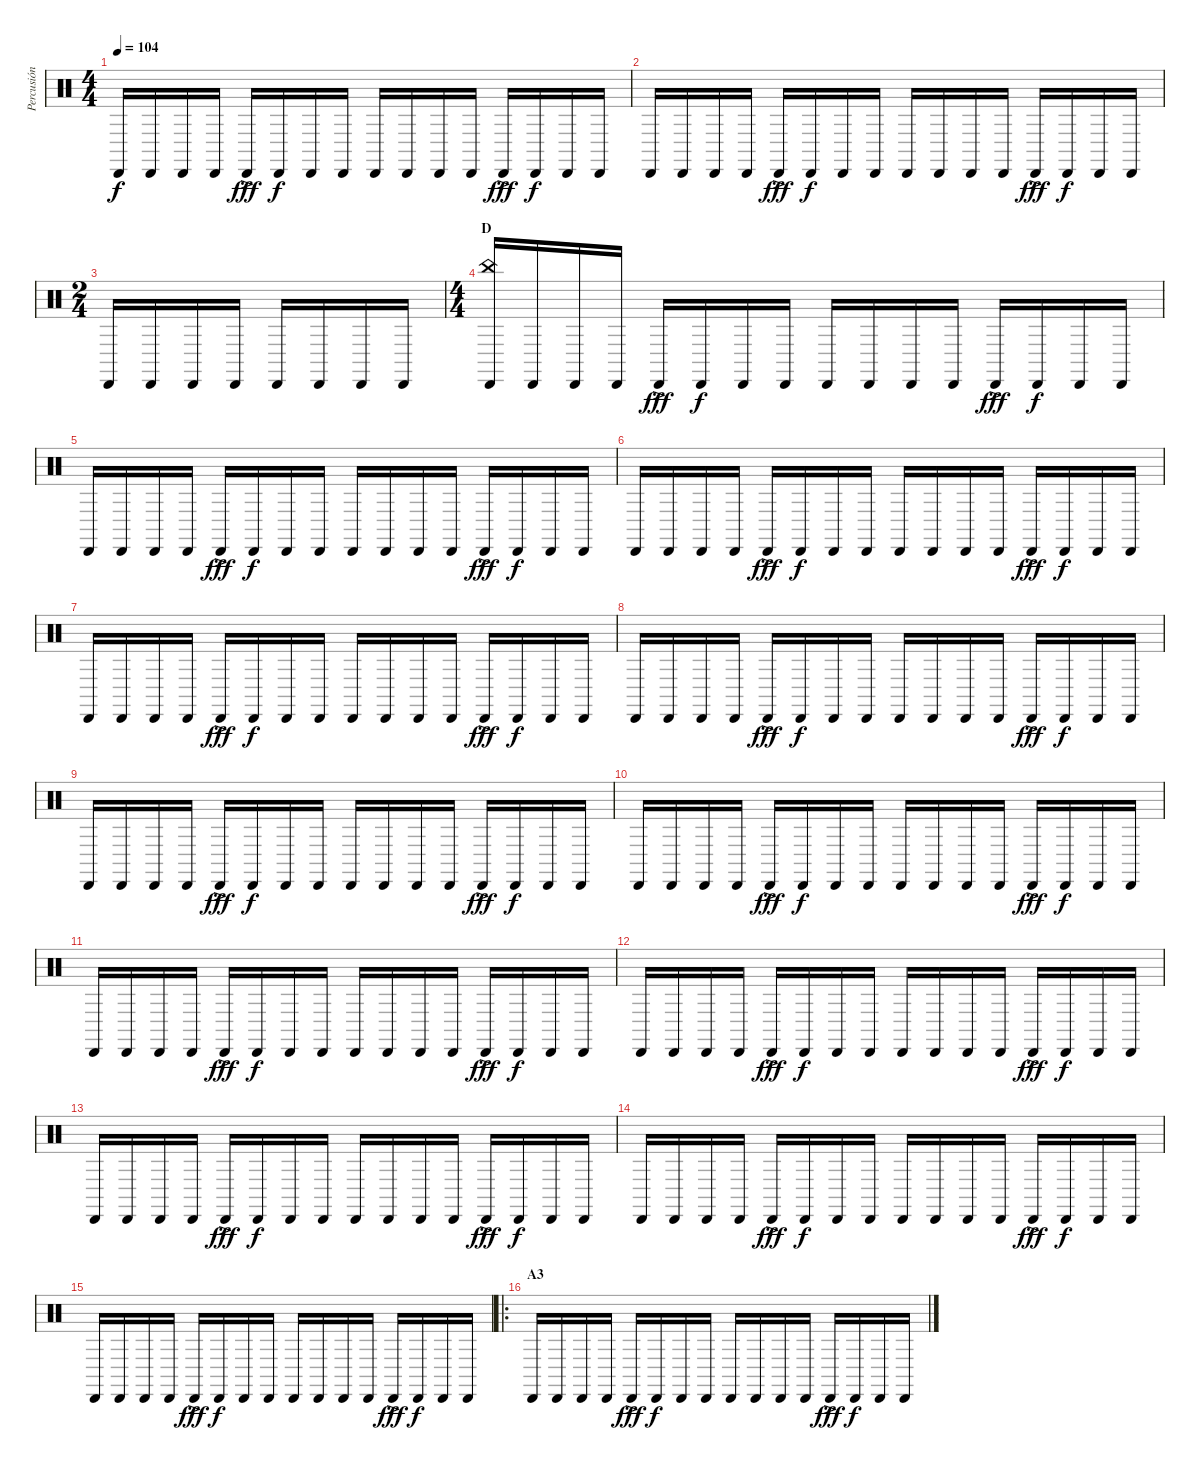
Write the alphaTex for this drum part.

\track ("Percusión" "Percusión") {instrument percussion}
\staff {score}
\articulation defaults
\ts (4 4)
\tempo 104
\clef neutral
\ks c "Cabasa (hit)".16{dy f} "Cabasa (hit)".16 "Cabasa (hit)".16 "Cabasa (hit)".16 "Cabasa (hit)"{ac}.16{dy fff} "Cabasa (hit)".16{dy f} "Cabasa (hit)".16 "Cabasa (hit)".16 "Cabasa (hit)".16 "Cabasa (hit)".16 "Cabasa (hit)".16 "Cabasa (hit)".16 "Cabasa (hit)"{ac}.16{dy fff} "Cabasa (hit)".16{dy f} "Cabasa (hit)".16 "Cabasa (hit)".16
|
"Cabasa (hit)".16 "Cabasa (hit)".16 "Cabasa (hit)".16 "Cabasa (hit)".16 "Cabasa (hit)"{ac}.16{dy fff} "Cabasa (hit)".16{dy f} "Cabasa (hit)".16 "Cabasa (hit)".16 "Cabasa (hit)".16 "Cabasa (hit)".16 "Cabasa (hit)".16 "Cabasa (hit)".16 "Cabasa (hit)"{ac}.16{dy fff} "Cabasa (hit)".16{dy f} "Cabasa (hit)".16 "Cabasa (hit)".16 |
\ts (2 4)
"Cabasa (hit)".16 "Cabasa (hit)".16 "Cabasa (hit)".16 "Cabasa (hit)".16 "Cabasa (hit)".16 "Cabasa (hit)".16 "Cabasa (hit)".16 "Cabasa (hit)".16 |
\ts (4 4)
\section ("" "D")
("Cabasa (hit)" "China (hit)").16 "Cabasa (hit)".16 "Cabasa (hit)".16 "Cabasa (hit)".16 "Cabasa (hit)"{ac}.16{dy fff} "Cabasa (hit)".16{dy f} "Cabasa (hit)".16 "Cabasa (hit)".16 "Cabasa (hit)".16 "Cabasa (hit)".16 "Cabasa (hit)".16 "Cabasa (hit)".16 "Cabasa (hit)"{ac}.16{dy fff} "Cabasa (hit)".16{dy f} "Cabasa (hit)".16 "Cabasa (hit)".16 |
"Cabasa (hit)".16 "Cabasa (hit)".16 "Cabasa (hit)".16 "Cabasa (hit)".16 "Cabasa (hit)"{ac}.16{dy fff} "Cabasa (hit)".16{dy f} "Cabasa (hit)".16 "Cabasa (hit)".16 "Cabasa (hit)".16 "Cabasa (hit)".16 "Cabasa (hit)".16 "Cabasa (hit)".16 "Cabasa (hit)"{ac}.16{dy fff} "Cabasa (hit)".16{dy f} "Cabasa (hit)".16 "Cabasa (hit)".16 |
"Cabasa (hit)".16 "Cabasa (hit)".16 "Cabasa (hit)".16 "Cabasa (hit)".16 "Cabasa (hit)"{ac}.16{dy fff} "Cabasa (hit)".16{dy f} "Cabasa (hit)".16 "Cabasa (hit)".16 "Cabasa (hit)".16 "Cabasa (hit)".16 "Cabasa (hit)".16 "Cabasa (hit)".16 "Cabasa (hit)"{ac}.16{dy fff} "Cabasa (hit)".16{dy f} "Cabasa (hit)".16 "Cabasa (hit)".16 |
"Cabasa (hit)".16 "Cabasa (hit)".16 "Cabasa (hit)".16 "Cabasa (hit)".16 "Cabasa (hit)"{ac}.16{dy fff} "Cabasa (hit)".16{dy f} "Cabasa (hit)".16 "Cabasa (hit)".16 "Cabasa (hit)".16 "Cabasa (hit)".16 "Cabasa (hit)".16 "Cabasa (hit)".16 "Cabasa (hit)"{ac}.16{dy fff} "Cabasa (hit)".16{dy f} "Cabasa (hit)".16 "Cabasa (hit)".16 |
"Cabasa (hit)".16 "Cabasa (hit)".16 "Cabasa (hit)".16 "Cabasa (hit)".16 "Cabasa (hit)"{ac}.16{dy fff} "Cabasa (hit)".16{dy f} "Cabasa (hit)".16 "Cabasa (hit)".16 "Cabasa (hit)".16 "Cabasa (hit)".16 "Cabasa (hit)".16 "Cabasa (hit)".16 "Cabasa (hit)"{ac}.16{dy fff} "Cabasa (hit)".16{dy f} "Cabasa (hit)".16 "Cabasa (hit)".16 |
"Cabasa (hit)".16 "Cabasa (hit)".16 "Cabasa (hit)".16 "Cabasa (hit)".16 "Cabasa (hit)"{ac}.16{dy fff} "Cabasa (hit)".16{dy f} "Cabasa (hit)".16 "Cabasa (hit)".16 "Cabasa (hit)".16 "Cabasa (hit)".16 "Cabasa (hit)".16 "Cabasa (hit)".16 "Cabasa (hit)"{ac}.16{dy fff} "Cabasa (hit)".16{dy f} "Cabasa (hit)".16 "Cabasa (hit)".16 |
"Cabasa (hit)".16 "Cabasa (hit)".16 "Cabasa (hit)".16 "Cabasa (hit)".16 "Cabasa (hit)"{ac}.16{dy fff} "Cabasa (hit)".16{dy f} "Cabasa (hit)".16 "Cabasa (hit)".16 "Cabasa (hit)".16 "Cabasa (hit)".16 "Cabasa (hit)".16 "Cabasa (hit)".16 "Cabasa (hit)"{ac}.16{dy fff} "Cabasa (hit)".16{dy f} "Cabasa (hit)".16 "Cabasa (hit)".16 |
"Cabasa (hit)".16 "Cabasa (hit)".16 "Cabasa (hit)".16 "Cabasa (hit)".16 "Cabasa (hit)"{ac}.16{dy fff} "Cabasa (hit)".16{dy f} "Cabasa (hit)".16 "Cabasa (hit)".16 "Cabasa (hit)".16 "Cabasa (hit)".16 "Cabasa (hit)".16 "Cabasa (hit)".16 "Cabasa (hit)"{ac}.16{dy fff} "Cabasa (hit)".16{dy f} "Cabasa (hit)".16 "Cabasa (hit)".16 |
"Cabasa (hit)".16 "Cabasa (hit)".16 "Cabasa (hit)".16 "Cabasa (hit)".16 "Cabasa (hit)"{ac}.16{dy fff} "Cabasa (hit)".16{dy f} "Cabasa (hit)".16 "Cabasa (hit)".16 "Cabasa (hit)".16 "Cabasa (hit)".16 "Cabasa (hit)".16 "Cabasa (hit)".16 "Cabasa (hit)"{ac}.16{dy fff} "Cabasa (hit)".16{dy f} "Cabasa (hit)".16 "Cabasa (hit)".16 |
"Cabasa (hit)".16 "Cabasa (hit)".16 "Cabasa (hit)".16 "Cabasa (hit)".16 "Cabasa (hit)"{ac}.16{dy fff} "Cabasa (hit)".16{dy f} "Cabasa (hit)".16 "Cabasa (hit)".16 "Cabasa (hit)".16 "Cabasa (hit)".16 "Cabasa (hit)".16 "Cabasa (hit)".16 "Cabasa (hit)"{ac}.16{dy fff} "Cabasa (hit)".16{dy f} "Cabasa (hit)".16 "Cabasa (hit)".16 |
"Cabasa (hit)".16 "Cabasa (hit)".16 "Cabasa (hit)".16 "Cabasa (hit)".16 "Cabasa (hit)"{ac}.16{dy fff} "Cabasa (hit)".16{dy f} "Cabasa (hit)".16 "Cabasa (hit)".16 "Cabasa (hit)".16 "Cabasa (hit)".16 "Cabasa (hit)".16 "Cabasa (hit)".16 "Cabasa (hit)"{ac}.16{dy fff} "Cabasa (hit)".16{dy f} "Cabasa (hit)".16 "Cabasa (hit)".16 |
"Cabasa (hit)".16 "Cabasa (hit)".16 "Cabasa (hit)".16 "Cabasa (hit)".16 "Cabasa (hit)"{ac}.16{dy fff} "Cabasa (hit)".16{dy f} "Cabasa (hit)".16 "Cabasa (hit)".16 "Cabasa (hit)".16 "Cabasa (hit)".16 "Cabasa (hit)".16 "Cabasa (hit)".16 "Cabasa (hit)"{ac}.16{dy fff} "Cabasa (hit)".16{dy f} "Cabasa (hit)".16 "Cabasa (hit)".16 |
\ro
\section ("" "A3")
"Cabasa (hit)".16 "Cabasa (hit)".16 "Cabasa (hit)".16 "Cabasa (hit)".16 "Cabasa (hit)"{ac}.16{dy fff} "Cabasa (hit)".16{dy f} "Cabasa (hit)".16 "Cabasa (hit)".16 "Cabasa (hit)".16 "Cabasa (hit)".16 "Cabasa (hit)".16 "Cabasa (hit)".16 "Cabasa (hit)"{ac}.16{dy fff} "Cabasa (hit)".16{dy f} "Cabasa (hit)".16 "Cabasa (hit)".16
